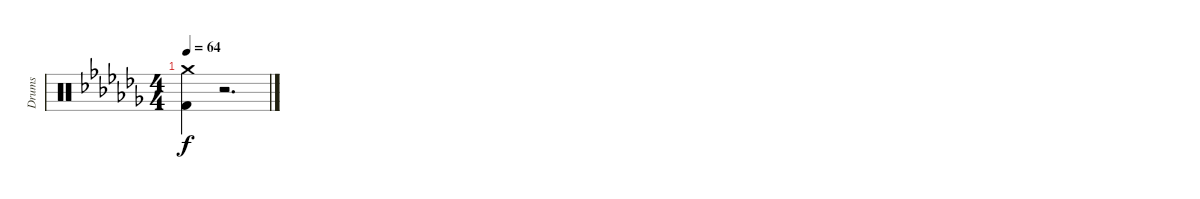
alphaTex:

\track ("Drums" "Drums") {instrument percussion}
\staff {score}
\articulation defaults
\ts (4 4)
\tempo 64
\clef neutral
\ks abminor
("Crash medium (hit)" "Kick (hit) 2").4{dy f} r.2{d}
